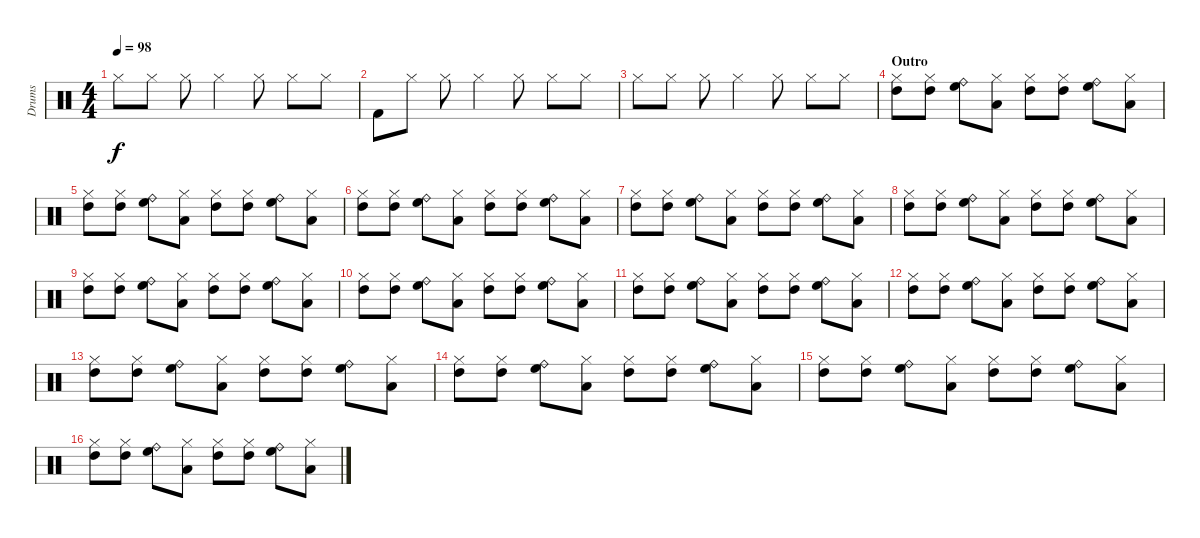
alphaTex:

\track ("Drums" "Drums") {instrument percussion}
\staff {score}
\articulation defaults
\ts (4 4)
\tempo 98
\clef neutral
\ks c "Hi-Hat (closed)".8{dy f} "Hi-Hat (closed)".8 "Hi-Hat (closed)".8 "Hi-Hat (closed)".4 "Hi-Hat (closed)".8 "Hi-Hat (closed)".8 "Hi-Hat (closed)".8
|
"Kick (hit) 2".8 "Hi-Hat (closed)".8 "Hi-Hat (closed)".8 "Hi-Hat (closed)".4 "Hi-Hat (closed)".8 "Hi-Hat (closed)".8 "Hi-Hat (closed)".8 |
"Hi-Hat (closed)".8 "Hi-Hat (closed)".8 "Hi-Hat (closed)".8 "Hi-Hat (closed)".4 "Hi-Hat (closed)".8 "Hi-Hat (closed)".8 "Hi-Hat (closed)".8 |
\section ("" "Outro")
("Hi-Hat (closed)" "High Tom (hit)").8 ("Hi-Hat (closed)" "High Tom (hit)").8 ("Ride (bell)" "High Floor Tom (hit)").8 ("Hi-Hat (closed)" "Low Tom (hit)").8 ("Hi-Hat (closed)" "High Tom (hit)").8 ("Hi-Hat (closed)" "High Tom (hit)").8 ("Ride (bell)" "High Floor Tom (hit)").8 ("Hi-Hat (closed)" "Low Tom (hit)").8 |
("Hi-Hat (closed)" "High Tom (hit)").8 ("Hi-Hat (closed)" "High Tom (hit)").8 ("Ride (bell)" "High Floor Tom (hit)").8 ("Hi-Hat (closed)" "Low Tom (hit)").8 ("Hi-Hat (closed)" "High Tom (hit)").8 ("Hi-Hat (closed)" "High Tom (hit)").8 ("Ride (bell)" "High Floor Tom (hit)").8 ("Hi-Hat (closed)" "Low Tom (hit)").8 |
("Hi-Hat (closed)" "High Tom (hit)").8 ("Hi-Hat (closed)" "High Tom (hit)").8 ("Ride (bell)" "High Floor Tom (hit)").8 ("Hi-Hat (closed)" "Low Tom (hit)").8 ("Hi-Hat (closed)" "High Tom (hit)").8 ("Hi-Hat (closed)" "High Tom (hit)").8 ("Ride (bell)" "High Floor Tom (hit)").8 ("Hi-Hat (closed)" "Low Tom (hit)").8 |
("Hi-Hat (closed)" "High Tom (hit)").8 ("Hi-Hat (closed)" "High Tom (hit)").8 ("Ride (bell)" "High Floor Tom (hit)").8 ("Hi-Hat (closed)" "Low Tom (hit)").8 ("Hi-Hat (closed)" "High Tom (hit)").8 ("Hi-Hat (closed)" "High Tom (hit)").8 ("Ride (bell)" "High Floor Tom (hit)").8 ("Hi-Hat (closed)" "Low Tom (hit)").8 |
("Hi-Hat (closed)" "High Tom (hit)").8 ("Hi-Hat (closed)" "High Tom (hit)").8 ("Ride (bell)" "High Floor Tom (hit)").8 ("Hi-Hat (closed)" "Low Tom (hit)").8 ("Hi-Hat (closed)" "High Tom (hit)").8 ("Hi-Hat (closed)" "High Tom (hit)").8 ("Ride (bell)" "High Floor Tom (hit)").8 ("Hi-Hat (closed)" "Low Tom (hit)").8 |
("Hi-Hat (closed)" "High Tom (hit)").8 ("Hi-Hat (closed)" "High Tom (hit)").8 ("Ride (bell)" "High Floor Tom (hit)").8 ("Hi-Hat (closed)" "Low Tom (hit)").8 ("Hi-Hat (closed)" "High Tom (hit)").8 ("Hi-Hat (closed)" "High Tom (hit)").8 ("Ride (bell)" "High Floor Tom (hit)").8 ("Hi-Hat (closed)" "Low Tom (hit)").8 |
("Hi-Hat (closed)" "High Tom (hit)").8 ("Hi-Hat (closed)" "High Tom (hit)").8 ("Ride (bell)" "High Floor Tom (hit)").8 ("Hi-Hat (closed)" "Low Tom (hit)").8 ("Hi-Hat (closed)" "High Tom (hit)").8 ("Hi-Hat (closed)" "High Tom (hit)").8 ("Ride (bell)" "High Floor Tom (hit)").8 ("Hi-Hat (closed)" "Low Tom (hit)").8 |
("Hi-Hat (closed)" "High Tom (hit)").8 ("Hi-Hat (closed)" "High Tom (hit)").8 ("Ride (bell)" "High Floor Tom (hit)").8 ("Hi-Hat (closed)" "Low Tom (hit)").8 ("Hi-Hat (closed)" "High Tom (hit)").8 ("Hi-Hat (closed)" "High Tom (hit)").8 ("Ride (bell)" "High Floor Tom (hit)").8 ("Hi-Hat (closed)" "Low Tom (hit)").8 |
("Hi-Hat (closed)" "High Tom (hit)").8 ("Hi-Hat (closed)" "High Tom (hit)").8 ("Ride (bell)" "High Floor Tom (hit)").8 ("Hi-Hat (closed)" "Low Tom (hit)").8 ("Hi-Hat (closed)" "High Tom (hit)").8 ("Hi-Hat (closed)" "High Tom (hit)").8 ("Ride (bell)" "High Floor Tom (hit)").8 ("Hi-Hat (closed)" "Low Tom (hit)").8 |
("Hi-Hat (closed)" "High Tom (hit)").8 ("Hi-Hat (closed)" "High Tom (hit)").8 ("Ride (bell)" "High Floor Tom (hit)").8 ("Hi-Hat (closed)" "Low Tom (hit)").8 ("Hi-Hat (closed)" "High Tom (hit)").8 ("Hi-Hat (closed)" "High Tom (hit)").8 ("Ride (bell)" "High Floor Tom (hit)").8 ("Hi-Hat (closed)" "Low Tom (hit)").8 |
("Hi-Hat (closed)" "High Tom (hit)").8 ("Hi-Hat (closed)" "High Tom (hit)").8 ("Ride (bell)" "High Floor Tom (hit)").8 ("Hi-Hat (closed)" "Low Tom (hit)").8 ("Hi-Hat (closed)" "High Tom (hit)").8 ("Hi-Hat (closed)" "High Tom (hit)").8 ("Ride (bell)" "High Floor Tom (hit)").8 ("Hi-Hat (closed)" "Low Tom (hit)").8 |
("Hi-Hat (closed)" "High Tom (hit)").8 ("Hi-Hat (closed)" "High Tom (hit)").8 ("Ride (bell)" "High Floor Tom (hit)").8 ("Hi-Hat (closed)" "Low Tom (hit)").8 ("Hi-Hat (closed)" "High Tom (hit)").8 ("Hi-Hat (closed)" "High Tom (hit)").8 ("Ride (bell)" "High Floor Tom (hit)").8 ("Hi-Hat (closed)" "Low Tom (hit)").8 |
("Hi-Hat (closed)" "High Tom (hit)").8 ("Hi-Hat (closed)" "High Tom (hit)").8 ("Ride (bell)" "High Floor Tom (hit)").8 ("Hi-Hat (closed)" "Low Tom (hit)").8 ("Hi-Hat (closed)" "High Tom (hit)").8 ("Hi-Hat (closed)" "High Tom (hit)").8 ("Ride (bell)" "High Floor Tom (hit)").8 ("Hi-Hat (closed)" "Low Tom (hit)").8
